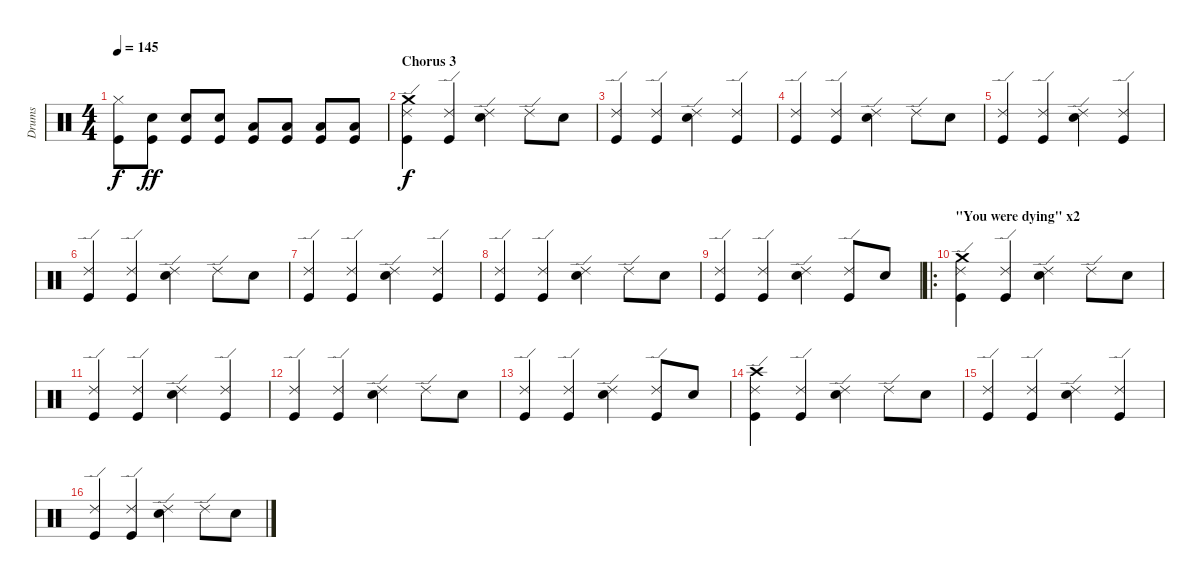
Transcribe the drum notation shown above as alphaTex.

\track ("Drums" "Drums") {instrument percussion}
\staff {score}
\articulation defaults
\ts (4 4)
\tempo 145
\clef neutral
\ks c
("Hi-Hat (closed)" "Kick (hit)").8{dy f} ("Electric Snare (hit)" "Kick (hit)").8{dy ff} ("Electric Snare (hit)" "Kick (hit)").8 ("Electric Snare (hit)" "Kick (hit)").8 ("Low Tom (hit)" "Kick (hit)").8 ("Low Tom (hit)" "Kick (hit)").8 ("Low Tom (hit)" "Kick (hit)").8 ("Low Tom (hit)" "Kick (hit)").8 |
\section ("" "Chorus 3")
("Ride (edge) 2" "Crash medium (hit)" "Kick (hit)").4{dy f} ("Ride (edge) 2" "Kick (hit)").4 ("Ride (edge) 2" "Electric Snare (hit)").4 "Ride (edge) 2".8 "Electric Snare (hit)".8 |
("Ride (edge) 2" "Kick (hit)").4 ("Ride (edge) 2" "Kick (hit)").4 ("Ride (edge) 2" "Electric Snare (hit)").4 ("Ride (edge) 2" "Kick (hit)").4 |
("Ride (edge) 2" "Kick (hit)").4 ("Ride (edge) 2" "Kick (hit)").4 ("Ride (edge) 2" "Electric Snare (hit)").4 "Ride (edge) 2".8 "Electric Snare (hit)".8 |
("Ride (edge) 2" "Kick (hit)").4 ("Ride (edge) 2" "Kick (hit)").4 ("Ride (edge) 2" "Electric Snare (hit)").4 ("Ride (edge) 2" "Kick (hit)").4 |
("Ride (edge) 2" "Kick (hit)").4 ("Ride (edge) 2" "Kick (hit)").4 ("Ride (edge) 2" "Electric Snare (hit)").4 "Ride (edge) 2".8 "Electric Snare (hit)".8 |
("Ride (edge) 2" "Kick (hit)").4 ("Ride (edge) 2" "Kick (hit)").4 ("Ride (edge) 2" "Electric Snare (hit)").4 ("Ride (edge) 2" "Kick (hit)").4 |
("Ride (edge) 2" "Kick (hit)").4 ("Ride (edge) 2" "Kick (hit)").4 ("Ride (edge) 2" "Electric Snare (hit)").4 "Ride (edge) 2".8 "Electric Snare (hit)".8 |
("Ride (edge) 2" "Kick (hit)").4 ("Ride (edge) 2" "Kick (hit)").4 ("Ride (edge) 2" "Electric Snare (hit)").4 ("Ride (edge) 2" "Kick (hit)").8 "Electric Snare (hit)".8 |
\ro
\section ("" "\"You were dying\" x2")
("Ride (edge) 2" "Crash medium (hit)" "Kick (hit)").4 ("Ride (edge) 2" "Kick (hit)").4 ("Ride (edge) 2" "Electric Snare (hit)").4 "Ride (edge) 2".8 "Electric Snare (hit)".8 |
("Ride (edge) 2" "Kick (hit)").4 ("Ride (edge) 2" "Kick (hit)").4 ("Ride (edge) 2" "Electric Snare (hit)").4 ("Ride (edge) 2" "Kick (hit)").4 |
("Ride (edge) 2" "Kick (hit)").4 ("Ride (edge) 2" "Kick (hit)").4 ("Ride (edge) 2" "Electric Snare (hit)").4 "Ride (edge) 2".8 "Electric Snare (hit)".8 |
("Ride (edge) 2" "Kick (hit)").4 ("Ride (edge) 2" "Kick (hit)").4 ("Ride (edge) 2" "Electric Snare (hit)").4 ("Ride (edge) 2" "Kick (hit)").8 "Electric Snare (hit)".8 |
("Ride (edge) 2" "Crash high (hit)" "Kick (hit)").4 ("Ride (edge) 2" "Kick (hit)").4 ("Ride (edge) 2" "Electric Snare (hit)").4 "Ride (edge) 2".8 "Electric Snare (hit)".8 |
("Ride (edge) 2" "Kick (hit)").4 ("Ride (edge) 2" "Kick (hit)").4 ("Ride (edge) 2" "Electric Snare (hit)").4 ("Ride (edge) 2" "Kick (hit)").4 |
("Ride (edge) 2" "Kick (hit)").4 ("Ride (edge) 2" "Kick (hit)").4 ("Ride (edge) 2" "Electric Snare (hit)").4 "Ride (edge) 2".8 "Electric Snare (hit)".8
